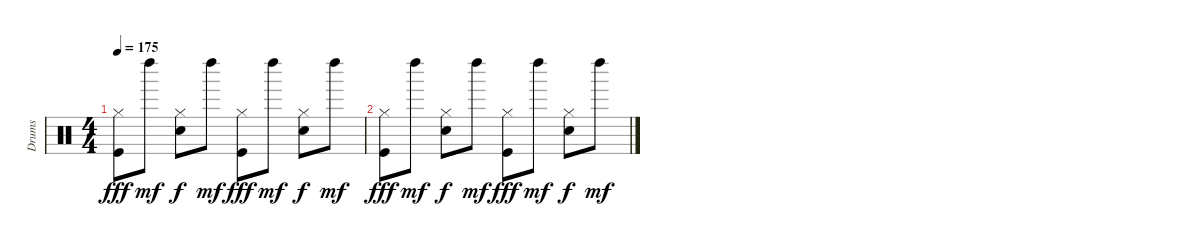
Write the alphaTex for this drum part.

\track ("Drums" "Drums") {instrument percussion}
\staff {score}
\articulation defaults
\ts (4 4)
\tempo 175
\clef neutral
\ks c
("Hi-Hat (closed)" "Kick (hit)").8{dy fff} "Left Maraca (hit)".8{dy mf} ("Hi-Hat (closed)" "Snare (hit) 2").8{dy f} "Left Maraca (hit)".8{dy mf} ("Hi-Hat (closed)" "Kick (hit)").8{dy fff} "Left Maraca (hit)".8{dy mf} ("Hi-Hat (closed)" "Snare (hit) 2").8{dy f} "Left Maraca (hit)".8{dy mf} |
("Hi-Hat (closed)" "Kick (hit)").8{dy fff} "Left Maraca (hit)".8{dy mf} ("Hi-Hat (closed)" "Snare (hit) 2").8{dy f} "Left Maraca (hit)".8{dy mf} ("Hi-Hat (closed)" "Kick (hit)").8{dy fff} "Left Maraca (hit)".8{dy mf} ("Hi-Hat (closed)" "Snare (hit) 2").8{dy f} "Left Maraca (hit)".8{dy mf}
